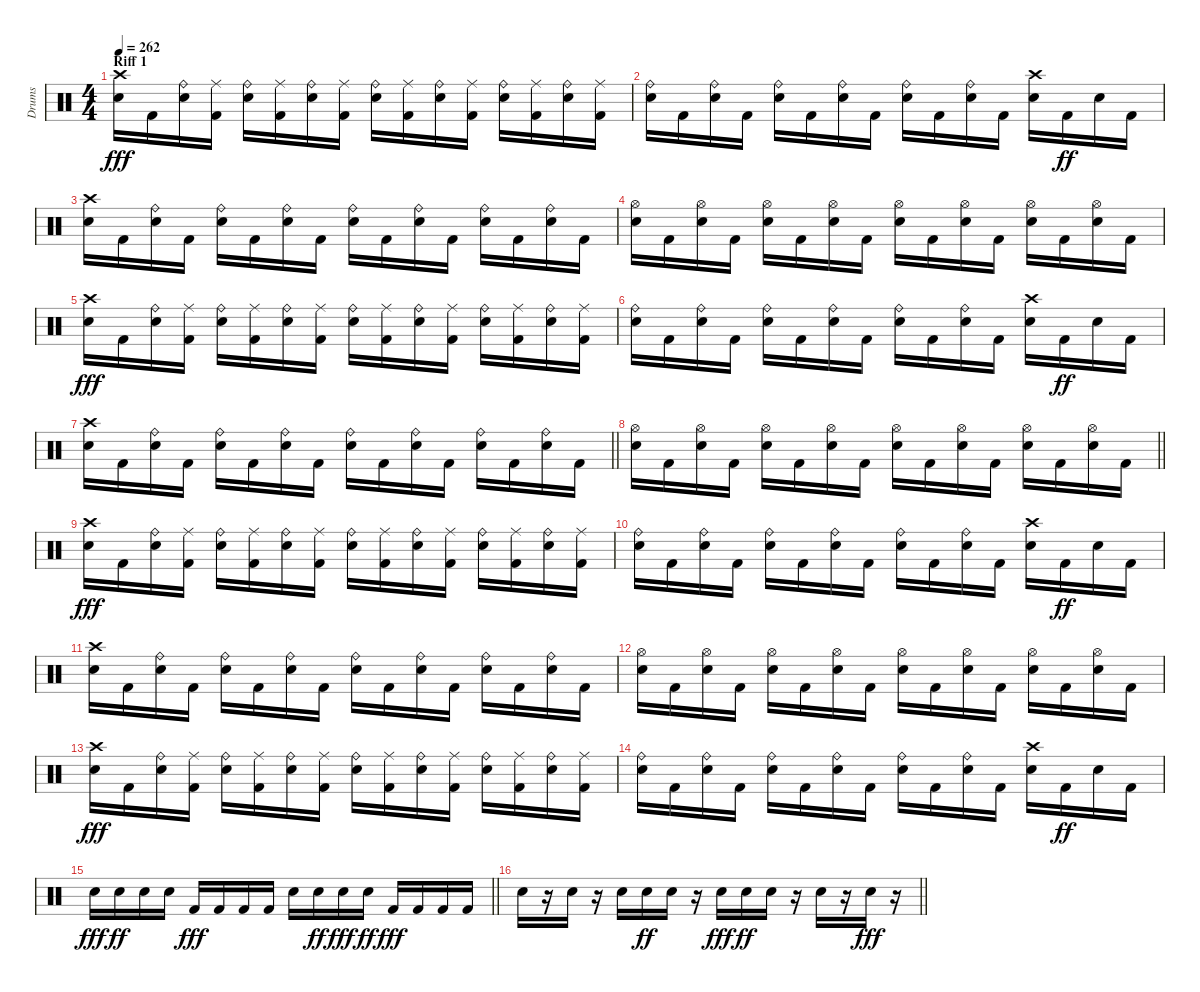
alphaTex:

\track ("Drums" "Drums") {instrument percussion}
\staff {score}
\articulation defaults
\ts (4 4)
\section ("" "Riff 1")
\tempo 262
\clef neutral
\ks c
("Crash high (hit)" "Snare (hit) 2").16{dy fff} "Kick (hit) 2".16 ("Snare (hit) 2" "Ride (bell)").16 ("Kick (hit) 2" "Ride (middle)").16 ("Snare (hit) 2" "Ride (bell)").16 ("Kick (hit) 2" "Ride (middle)").16 ("Snare (hit) 2" "Ride (bell)").16 ("Kick (hit) 2" "Ride (middle)").16 ("Snare (hit) 2" "Ride (bell)").16 ("Kick (hit) 2" "Ride (middle)").16 ("Snare (hit) 2" "Ride (bell)").16 ("Kick (hit) 2" "Ride (middle)").16 ("Snare (hit) 2" "Ride (bell)").16 ("Kick (hit) 2" "Ride (middle)").16 ("Snare (hit) 2" "Ride (bell)").16 ("Kick (hit) 2" "Ride (middle)").16 |
("Snare (hit) 2" "Ride (bell)").16 "Kick (hit) 2".16 ("Snare (hit) 2" "Ride (bell)").16 "Kick (hit) 2".16 ("Snare (hit) 2" "Ride (bell)").16 "Kick (hit) 2".16 ("Snare (hit) 2" "Ride (bell)").16 "Kick (hit) 2".16 ("Snare (hit) 2" "Ride (bell)").16 "Kick (hit) 2".16 ("Snare (hit) 2" "Ride (bell)").16 "Kick (hit) 2".16 ("Crash high (hit)" "Snare (hit) 2").16 "Kick (hit) 2".16{dy ff} "Snare (hit) 2".16 "Kick (hit) 2".16 |
("Crash high (hit)" "Snare (hit) 2").16 "Kick (hit) 2".16 ("Snare (hit) 2" "Ride (bell)").16 "Kick (hit) 2".16 ("Snare (hit) 2" "Ride (bell)").16 "Kick (hit) 2".16 ("Snare (hit) 2" "Ride (bell)").16 "Kick (hit) 2".16 ("Snare (hit) 2" "Ride (bell)").16 "Kick (hit) 2".16 ("Snare (hit) 2" "Ride (bell)").16 "Kick (hit) 2".16 ("Snare (hit) 2" "Ride (bell)").16 "Kick (hit) 2".16 ("Snare (hit) 2" "Ride (bell)").16 "Kick (hit) 2".16 |
("Hi-Hat (open)" "Snare (hit) 2").16 "Kick (hit) 2".16 ("Hi-Hat (open)" "Snare (hit) 2").16 "Kick (hit) 2".16 ("Hi-Hat (open)" "Snare (hit) 2").16 "Kick (hit) 2".16 ("Hi-Hat (open)" "Snare (hit) 2").16 "Kick (hit) 2".16 ("Hi-Hat (open)" "Snare (hit) 2").16 "Kick (hit) 2".16 ("Hi-Hat (open)" "Snare (hit) 2").16 "Kick (hit) 2".16 ("Hi-Hat (open)" "Snare (hit) 2").16 "Kick (hit) 2".16 ("Hi-Hat (open)" "Snare (hit) 2").16 "Kick (hit) 2".16 |
("Crash high (hit)" "Snare (hit) 2").16{dy fff} "Kick (hit) 2".16 ("Snare (hit) 2" "Ride (bell)").16 ("Kick (hit) 2" "Ride (middle)").16 ("Snare (hit) 2" "Ride (bell)").16 ("Kick (hit) 2" "Ride (middle)").16 ("Snare (hit) 2" "Ride (bell)").16 ("Kick (hit) 2" "Ride (middle)").16 ("Snare (hit) 2" "Ride (bell)").16 ("Kick (hit) 2" "Ride (middle)").16 ("Snare (hit) 2" "Ride (bell)").16 ("Kick (hit) 2" "Ride (middle)").16 ("Snare (hit) 2" "Ride (bell)").16 ("Kick (hit) 2" "Ride (middle)").16 ("Snare (hit) 2" "Ride (bell)").16 ("Kick (hit) 2" "Ride (middle)").16 |
("Snare (hit) 2" "Ride (bell)").16 "Kick (hit) 2".16 ("Snare (hit) 2" "Ride (bell)").16 "Kick (hit) 2".16 ("Snare (hit) 2" "Ride (bell)").16 "Kick (hit) 2".16 ("Snare (hit) 2" "Ride (bell)").16 "Kick (hit) 2".16 ("Snare (hit) 2" "Ride (bell)").16 "Kick (hit) 2".16 ("Snare (hit) 2" "Ride (bell)").16 "Kick (hit) 2".16 ("Crash high (hit)" "Snare (hit) 2").16 "Kick (hit) 2".16{dy ff} "Snare (hit) 2".16 "Kick (hit) 2".16 |
\barLineRight lightlight
("Crash high (hit)" "Snare (hit) 2").16 "Kick (hit) 2".16 ("Snare (hit) 2" "Ride (bell)").16 "Kick (hit) 2".16 ("Snare (hit) 2" "Ride (bell)").16 "Kick (hit) 2".16 ("Snare (hit) 2" "Ride (bell)").16 "Kick (hit) 2".16 ("Snare (hit) 2" "Ride (bell)").16 "Kick (hit) 2".16 ("Snare (hit) 2" "Ride (bell)").16 "Kick (hit) 2".16 ("Snare (hit) 2" "Ride (bell)").16 "Kick (hit) 2".16 ("Snare (hit) 2" "Ride (bell)").16 "Kick (hit) 2".16 |
\barLineRight lightlight
("Hi-Hat (open)" "Snare (hit) 2").16 "Kick (hit) 2".16 ("Hi-Hat (open)" "Snare (hit) 2").16 "Kick (hit) 2".16 ("Hi-Hat (open)" "Snare (hit) 2").16 "Kick (hit) 2".16 ("Hi-Hat (open)" "Snare (hit) 2").16 "Kick (hit) 2".16 ("Hi-Hat (open)" "Snare (hit) 2").16 "Kick (hit) 2".16 ("Hi-Hat (open)" "Snare (hit) 2").16 "Kick (hit) 2".16 ("Hi-Hat (open)" "Snare (hit) 2").16 "Kick (hit) 2".16 ("Hi-Hat (open)" "Snare (hit) 2").16 "Kick (hit) 2".16 |
("Crash high (hit)" "Snare (hit) 2").16{dy fff} "Kick (hit) 2".16 ("Snare (hit) 2" "Ride (bell)").16 ("Kick (hit) 2" "Ride (middle)").16 ("Snare (hit) 2" "Ride (bell)").16 ("Kick (hit) 2" "Ride (middle)").16 ("Snare (hit) 2" "Ride (bell)").16 ("Kick (hit) 2" "Ride (middle)").16 ("Snare (hit) 2" "Ride (bell)").16 ("Kick (hit) 2" "Ride (middle)").16 ("Snare (hit) 2" "Ride (bell)").16 ("Kick (hit) 2" "Ride (middle)").16 ("Snare (hit) 2" "Ride (bell)").16 ("Kick (hit) 2" "Ride (middle)").16 ("Snare (hit) 2" "Ride (bell)").16 ("Kick (hit) 2" "Ride (middle)").16 |
("Snare (hit) 2" "Ride (bell)").16 "Kick (hit) 2".16 ("Snare (hit) 2" "Ride (bell)").16 "Kick (hit) 2".16 ("Snare (hit) 2" "Ride (bell)").16 "Kick (hit) 2".16 ("Snare (hit) 2" "Ride (bell)").16 "Kick (hit) 2".16 ("Snare (hit) 2" "Ride (bell)").16 "Kick (hit) 2".16 ("Snare (hit) 2" "Ride (bell)").16 "Kick (hit) 2".16 ("Crash high (hit)" "Snare (hit) 2").16 "Kick (hit) 2".16{dy ff} "Snare (hit) 2".16 "Kick (hit) 2".16 |
("Crash high (hit)" "Snare (hit) 2").16 "Kick (hit) 2".16 ("Snare (hit) 2" "Ride (bell)").16 "Kick (hit) 2".16 ("Snare (hit) 2" "Ride (bell)").16 "Kick (hit) 2".16 ("Snare (hit) 2" "Ride (bell)").16 "Kick (hit) 2".16 ("Snare (hit) 2" "Ride (bell)").16 "Kick (hit) 2".16 ("Snare (hit) 2" "Ride (bell)").16 "Kick (hit) 2".16 ("Snare (hit) 2" "Ride (bell)").16 "Kick (hit) 2".16 ("Snare (hit) 2" "Ride (bell)").16 "Kick (hit) 2".16 |
("Hi-Hat (open)" "Snare (hit) 2").16 "Kick (hit) 2".16 ("Hi-Hat (open)" "Snare (hit) 2").16 "Kick (hit) 2".16 ("Hi-Hat (open)" "Snare (hit) 2").16 "Kick (hit) 2".16 ("Hi-Hat (open)" "Snare (hit) 2").16 "Kick (hit) 2".16 ("Hi-Hat (open)" "Snare (hit) 2").16 "Kick (hit) 2".16 ("Hi-Hat (open)" "Snare (hit) 2").16 "Kick (hit) 2".16 ("Hi-Hat (open)" "Snare (hit) 2").16 "Kick (hit) 2".16 ("Hi-Hat (open)" "Snare (hit) 2").16 "Kick (hit) 2".16 |
("Crash high (hit)" "Snare (hit) 2").16{dy fff} "Kick (hit) 2".16 ("Snare (hit) 2" "Ride (bell)").16 ("Kick (hit) 2" "Ride (middle)").16 ("Snare (hit) 2" "Ride (bell)").16 ("Kick (hit) 2" "Ride (middle)").16 ("Snare (hit) 2" "Ride (bell)").16 ("Kick (hit) 2" "Ride (middle)").16 ("Snare (hit) 2" "Ride (bell)").16 ("Kick (hit) 2" "Ride (middle)").16 ("Snare (hit) 2" "Ride (bell)").16 ("Kick (hit) 2" "Ride (middle)").16 ("Snare (hit) 2" "Ride (bell)").16 ("Kick (hit) 2" "Ride (middle)").16 ("Snare (hit) 2" "Ride (bell)").16 ("Kick (hit) 2" "Ride (middle)").16 |
("Snare (hit) 2" "Ride (bell)").16 "Kick (hit) 2".16 ("Snare (hit) 2" "Ride (bell)").16 "Kick (hit) 2".16 ("Snare (hit) 2" "Ride (bell)").16 "Kick (hit) 2".16 ("Snare (hit) 2" "Ride (bell)").16 "Kick (hit) 2".16 ("Snare (hit) 2" "Ride (bell)").16 "Kick (hit) 2".16 ("Snare (hit) 2" "Ride (bell)").16 "Kick (hit) 2".16 ("Crash high (hit)" "Snare (hit) 2").16 "Kick (hit) 2".16{dy ff} "Snare (hit) 2".16 "Kick (hit) 2".16 |
\barLineRight lightlight "Snare (hit) 2".16{dy fff} "Snare (hit) 2".16{dy ff} "Snare (hit) 2".16 "Snare (hit) 2".16 "Kick (hit) 2".16{dy fff} "Kick (hit) 2".16 "Kick (hit) 2".16 "Kick (hit) 2".16 "Snare (hit) 2".16 "Snare (hit) 2".16{dy ff} "Snare (hit) 2".16{dy fff} "Snare (hit) 2".16{dy ff} "Kick (hit) 2".16{dy fff} "Kick (hit) 2".16 "Kick (hit) 2".16 "Kick (hit) 2".16
|
\barLineRight lightlight "Snare (hit) 2".16
r.16 "Snare (hit) 2".16 r.16 "Snare (hit) 2".16 "Snare (hit) 2".16{dy ff} "Snare (hit) 2".16 r.16 "Snare (hit) 2".16{dy fff} "Snare (hit) 2".16{dy ff} "Snare (hit) 2".16 r.16 "Snare (hit) 2".16 r.16 "Snare (hit) 2".16{dy fff} r.16
